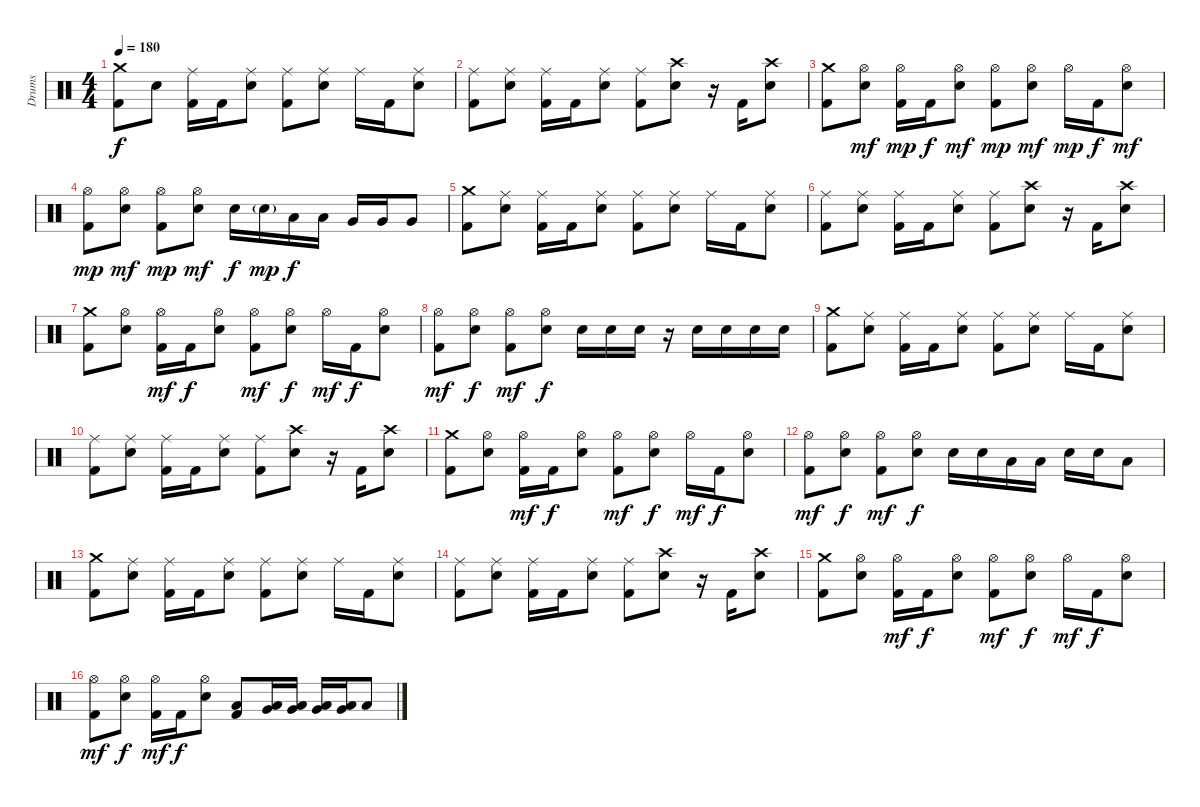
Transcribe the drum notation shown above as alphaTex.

\track ("Drums" "Drums") {instrument percussion}
\staff {score}
\articulation defaults
\ts (4 4)
\tempo 180
\clef neutral
\ks c
("Crash medium (hit)" "Kick (hit) 2").8{dy f} "Electric Snare (hit)".8 ("Ride (middle)" "Kick (hit) 2").16 "Kick (hit) 2".16 ("Ride (middle)" "Electric Snare (hit)").8 ("Ride (middle)" "Kick (hit) 2").8 ("Ride (middle)" "Electric Snare (hit)").8 "Ride (middle)".16 "Kick (hit) 2".16 ("Ride (middle)" "Electric Snare (hit)").8 |
("Ride (middle)" "Kick (hit) 2").8 ("Ride (middle)" "Electric Snare (hit)").8 ("Ride (middle)" "Kick (hit) 2").16 "Kick (hit) 2".16 ("Ride (middle)" "Electric Snare (hit)").8 ("Ride (middle)" "Kick (hit) 2").8 ("Crash high (hit)" "Electric Snare (hit)").8 r.16 "Kick (hit) 2".16 ("Crash high (hit)" "Electric Snare (hit)").8 |
("Crash medium (hit)" "Kick (hit) 2").8 ("Hi-Hat (open)" "Electric Snare (hit)").8{dy mf} ("Hi-Hat (open)" "Kick (hit) 2").16{dy mp} "Kick (hit) 2".16{dy f} ("Hi-Hat (open)" "Electric Snare (hit)").8{dy mf} ("Hi-Hat (open)" "Kick (hit) 2").8{dy mp} ("Hi-Hat (open)" "Electric Snare (hit)").8{dy mf} "Hi-Hat (open)".16{dy mp} "Kick (hit) 2".16{dy f} ("Hi-Hat (open)" "Electric Snare (hit)").8{dy mf} |
("Hi-Hat (open)" "Kick (hit) 2").8{dy mp} ("Hi-Hat (open)" "Electric Snare (hit)").8{dy mf} ("Hi-Hat (open)" "Kick (hit) 2").8{dy mp} ("Hi-Hat (open)" "Electric Snare (hit)").8{dy mf} "Electric Snare (hit)".16{dy f} "Electric Snare (hit)"{g}.16{dy mp} "Low Tom (hit)".16{dy f} "Low Tom (hit)".16 "Very Low Tom (hit)".16 "Very Low Tom (hit)".16 "Very Low Tom (hit)".8 |
("Crash medium (hit)" "Kick (hit) 2").8 ("Ride (middle)" "Electric Snare (hit)").8 ("Ride (middle)" "Kick (hit) 2").16 "Kick (hit) 2".16 ("Ride (middle)" "Electric Snare (hit)").8 ("Ride (middle)" "Kick (hit) 2").8 ("Ride (middle)" "Electric Snare (hit)").8 "Ride (middle)".16 "Kick (hit) 2".16 ("Ride (middle)" "Electric Snare (hit)").8 |
("Ride (middle)" "Kick (hit) 2").8 ("Ride (middle)" "Electric Snare (hit)").8 ("Ride (middle)" "Kick (hit) 2").16 "Kick (hit) 2".16 ("Ride (middle)" "Electric Snare (hit)").8 ("Ride (middle)" "Kick (hit) 2").8 ("Crash high (hit)" "Electric Snare (hit)").8 r.16 "Kick (hit) 2".16 ("Crash high (hit)" "Electric Snare (hit)").8 |
("Crash medium (hit)" "Kick (hit) 2").8 ("Hi-Hat (open)" "Electric Snare (hit)").8 ("Hi-Hat (open)" "Kick (hit) 2").16{dy mf} "Kick (hit) 2".16{dy f} ("Hi-Hat (open)" "Electric Snare (hit)").8 ("Hi-Hat (open)" "Kick (hit) 2").8{dy mf} ("Hi-Hat (open)" "Electric Snare (hit)").8{dy f} "Hi-Hat (open)".16{dy mf} "Kick (hit) 2".16{dy f} ("Hi-Hat (open)" "Electric Snare (hit)").8 |
("Hi-Hat (open)" "Kick (hit) 2").8{dy mf} ("Hi-Hat (open)" "Electric Snare (hit)").8{dy f} ("Hi-Hat (open)" "Kick (hit) 2").8{dy mf} ("Hi-Hat (open)" "Electric Snare (hit)").8{dy f} "Electric Snare (hit)".16 "Electric Snare (hit)".16 "Electric Snare (hit)".16 r.16 "Electric Snare (hit)".16 "Electric Snare (hit)".16 "Electric Snare (hit)".16 "Electric Snare (hit)".16 |
("Crash medium (hit)" "Kick (hit) 2").8 ("Ride (middle)" "Electric Snare (hit)").8 ("Ride (middle)" "Kick (hit) 2").16 "Kick (hit) 2".16 ("Ride (middle)" "Electric Snare (hit)").8 ("Ride (middle)" "Kick (hit) 2").8 ("Ride (middle)" "Electric Snare (hit)").8 "Ride (middle)".16 "Kick (hit) 2".16 ("Ride (middle)" "Electric Snare (hit)").8 |
("Ride (middle)" "Kick (hit) 2").8 ("Ride (middle)" "Electric Snare (hit)").8 ("Ride (middle)" "Kick (hit) 2").16 "Kick (hit) 2".16 ("Ride (middle)" "Electric Snare (hit)").8 ("Ride (middle)" "Kick (hit) 2").8 ("Crash high (hit)" "Electric Snare (hit)").8 r.16 "Kick (hit) 2".16 ("Crash high (hit)" "Electric Snare (hit)").8 |
("Crash medium (hit)" "Kick (hit) 2").8 ("Hi-Hat (open)" "Electric Snare (hit)").8 ("Hi-Hat (open)" "Kick (hit) 2").16{dy mf} "Kick (hit) 2".16{dy f} ("Hi-Hat (open)" "Electric Snare (hit)").8 ("Hi-Hat (open)" "Kick (hit) 2").8{dy mf} ("Hi-Hat (open)" "Electric Snare (hit)").8{dy f} "Hi-Hat (open)".16{dy mf} "Kick (hit) 2".16{dy f} ("Hi-Hat (open)" "Electric Snare (hit)").8 |
("Hi-Hat (open)" "Kick (hit) 2").8{dy mf} ("Hi-Hat (open)" "Electric Snare (hit)").8{dy f} ("Hi-Hat (open)" "Kick (hit) 2").8{dy mf} ("Hi-Hat (open)" "Electric Snare (hit)").8{dy f} "Electric Snare (hit)".16 "Electric Snare (hit)".16 "Low Tom (hit)".16 "Low Tom (hit)".16 "Electric Snare (hit)".16 "Electric Snare (hit)".16 "Low Floor Tom (hit)".8 |
("Crash medium (hit)" "Kick (hit) 2").8 ("Ride (middle)" "Electric Snare (hit)").8 ("Ride (middle)" "Kick (hit) 2").16 "Kick (hit) 2".16 ("Ride (middle)" "Electric Snare (hit)").8 ("Ride (middle)" "Kick (hit) 2").8 ("Ride (middle)" "Electric Snare (hit)").8 "Ride (middle)".16 "Kick (hit) 2".16 ("Ride (middle)" "Electric Snare (hit)").8 |
("Ride (middle)" "Kick (hit) 2").8 ("Ride (middle)" "Electric Snare (hit)").8 ("Ride (middle)" "Kick (hit) 2").16 "Kick (hit) 2".16 ("Ride (middle)" "Electric Snare (hit)").8 ("Ride (middle)" "Kick (hit) 2").8 ("Crash high (hit)" "Electric Snare (hit)").8 r.16 "Kick (hit) 2".16 ("Crash high (hit)" "Electric Snare (hit)").8 |
("Crash medium (hit)" "Kick (hit) 2").8 ("Hi-Hat (open)" "Electric Snare (hit)").8 ("Hi-Hat (open)" "Kick (hit) 2").16{dy mf} "Kick (hit) 2".16{dy f} ("Hi-Hat (open)" "Electric Snare (hit)").8 ("Hi-Hat (open)" "Kick (hit) 2").8{dy mf} ("Hi-Hat (open)" "Electric Snare (hit)").8{dy f} "Hi-Hat (open)".16{dy mf} "Kick (hit) 2".16{dy f} ("Hi-Hat (open)" "Electric Snare (hit)").8 |
("Hi-Hat (open)" "Kick (hit) 2").8{dy mf} ("Hi-Hat (open)" "Electric Snare (hit)").8{dy f} ("Hi-Hat (open)" "Kick (hit) 2").16{dy mf} "Kick (hit) 2".16{dy f} ("Hi-Hat (open)" "Electric Snare (hit)").8 ("Low Tom (hit)" "Kick (hit) 2").8 ("Low Tom (hit)" "Very Low Tom (hit)").16 ("Low Tom (hit)" "Very Low Tom (hit)").16 ("Very Low Tom (hit)" "Low Tom (hit)").16 ("Very Low Tom (hit)" "Low Tom (hit)").16 "Low Floor Tom (hit)".8
